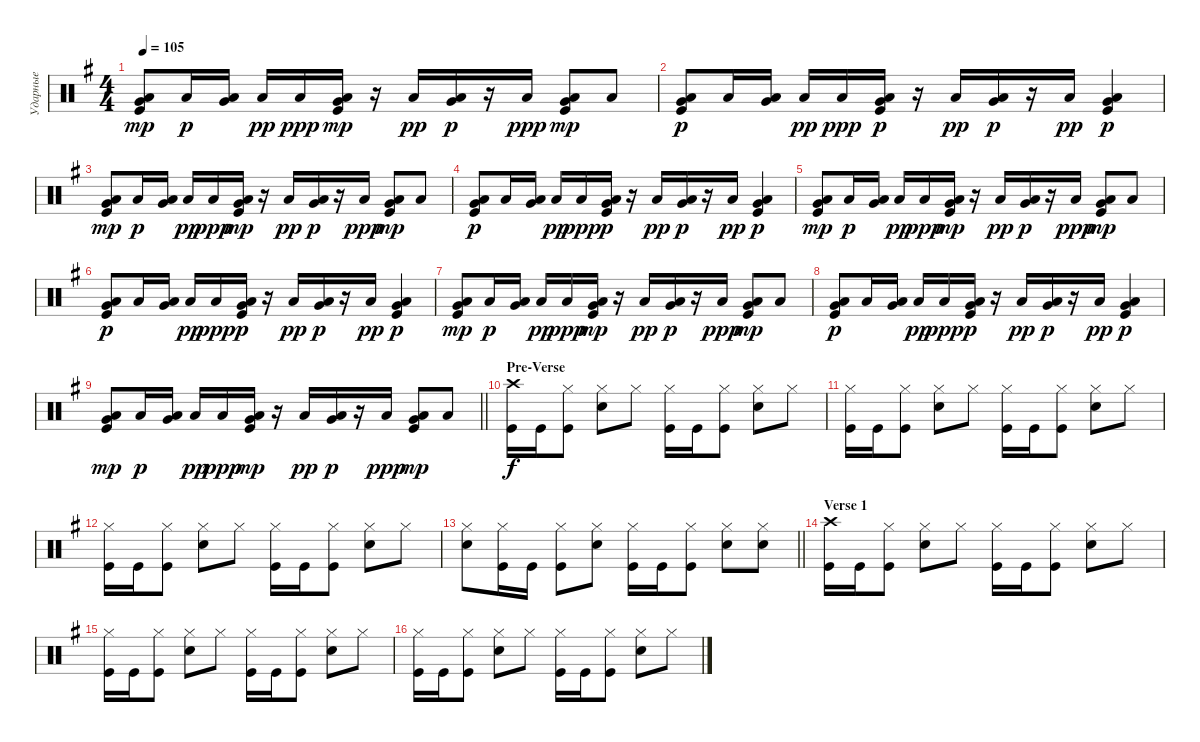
\track ("Ударные" "Ударные") {instrument percussion}
\staff {score}
\articulation defaults
\ts (4 4)
\tempo 105
\clef neutral
\ks eminor
("Low Floor Tom (hit)" "Very Low Tom (hit)" "Kick (hit)").8{bd 60 dy mp} "Low Floor Tom (hit)".16{dy p} ("Low Floor Tom (hit)" "Very Low Tom (hit)").16{bd 60} "Low Floor Tom (hit)".16{dy pp} "Low Floor Tom (hit)".16{dy ppp} ("Low Floor Tom (hit)" "Very Low Tom (hit)" "Kick (hit)").16{bd 60 dy mp} r.16 "Low Floor Tom (hit)".16{dy pp} ("Low Floor Tom (hit)" "Very Low Tom (hit)").16{bd 60 dy p} r.16 "Low Floor Tom (hit)".16{dy ppp} ("Low Floor Tom (hit)" "Very Low Tom (hit)" "Kick (hit)").8{bd 60 dy mp} "Low Floor Tom (hit)".8 |
("Low Floor Tom (hit)" "Very Low Tom (hit)" "Kick (hit)").8{bd 60 dy p} "Low Floor Tom (hit)".16 ("Low Floor Tom (hit)" "Very Low Tom (hit)").16{bd 60} "Low Floor Tom (hit)".16{dy pp} "Low Floor Tom (hit)".16{dy ppp} ("Low Floor Tom (hit)" "Very Low Tom (hit)" "Kick (hit)").16{bd 60 dy p} r.16 "Low Floor Tom (hit)".16{dy pp} ("Low Floor Tom (hit)" "Very Low Tom (hit)").16{bd 60 dy p} r.16 "Low Floor Tom (hit)".16{dy pp} ("Low Floor Tom (hit)" "Very Low Tom (hit)" "Kick (hit)").4{bd 60 dy p} |
("Low Floor Tom (hit)" "Very Low Tom (hit)" "Kick (hit)").8{bd 60 dy mp} "Low Floor Tom (hit)".16{dy p} ("Low Floor Tom (hit)" "Very Low Tom (hit)").16{bd 60} "Low Floor Tom (hit)".16{dy pp} "Low Floor Tom (hit)".16{dy ppp} ("Low Floor Tom (hit)" "Very Low Tom (hit)" "Kick (hit)").16{bd 60 dy mp} r.16 "Low Floor Tom (hit)".16{dy pp} ("Low Floor Tom (hit)" "Very Low Tom (hit)").16{bd 60 dy p} r.16 "Low Floor Tom (hit)".16{dy ppp} ("Low Floor Tom (hit)" "Very Low Tom (hit)" "Kick (hit)").8{bd 60 dy mp} "Low Floor Tom (hit)".8 |
("Low Floor Tom (hit)" "Very Low Tom (hit)" "Kick (hit)").8{bd 60 dy p} "Low Floor Tom (hit)".16 ("Low Floor Tom (hit)" "Very Low Tom (hit)").16{bd 60} "Low Floor Tom (hit)".16{dy pp} "Low Floor Tom (hit)".16{dy ppp} ("Low Floor Tom (hit)" "Very Low Tom (hit)" "Kick (hit)").16{bd 60 dy p} r.16 "Low Floor Tom (hit)".16{dy pp} ("Low Floor Tom (hit)" "Very Low Tom (hit)").16{bd 60 dy p} r.16 "Low Floor Tom (hit)".16{dy pp} ("Low Floor Tom (hit)" "Very Low Tom (hit)" "Kick (hit)").4{bd 60 dy p} |
("Low Floor Tom (hit)" "Very Low Tom (hit)" "Kick (hit)").8{bd 60 dy mp} "Low Floor Tom (hit)".16{dy p} ("Low Floor Tom (hit)" "Very Low Tom (hit)").16{bd 60} "Low Floor Tom (hit)".16{dy pp} "Low Floor Tom (hit)".16{dy ppp} ("Low Floor Tom (hit)" "Very Low Tom (hit)" "Kick (hit)").16{bd 60 dy mp} r.16 "Low Floor Tom (hit)".16{dy pp} ("Low Floor Tom (hit)" "Very Low Tom (hit)").16{bd 60 dy p} r.16 "Low Floor Tom (hit)".16{dy ppp} ("Low Floor Tom (hit)" "Very Low Tom (hit)" "Kick (hit)").8{bd 60 dy mp} "Low Floor Tom (hit)".8 |
("Low Floor Tom (hit)" "Very Low Tom (hit)" "Kick (hit)").8{bd 60 dy p} "Low Floor Tom (hit)".16 ("Low Floor Tom (hit)" "Very Low Tom (hit)").16{bd 60} "Low Floor Tom (hit)".16{dy pp} "Low Floor Tom (hit)".16{dy ppp} ("Low Floor Tom (hit)" "Very Low Tom (hit)" "Kick (hit)").16{bd 60 dy p} r.16 "Low Floor Tom (hit)".16{dy pp} ("Low Floor Tom (hit)" "Very Low Tom (hit)").16{bd 60 dy p} r.16 "Low Floor Tom (hit)".16{dy pp} ("Low Floor Tom (hit)" "Very Low Tom (hit)" "Kick (hit)").4{bd 60 dy p} |
("Low Floor Tom (hit)" "Very Low Tom (hit)" "Kick (hit)").8{bd 60 dy mp} "Low Floor Tom (hit)".16{dy p} ("Low Floor Tom (hit)" "Very Low Tom (hit)").16{bd 60} "Low Floor Tom (hit)".16{dy pp} "Low Floor Tom (hit)".16{dy ppp} ("Low Floor Tom (hit)" "Very Low Tom (hit)" "Kick (hit)").16{bd 60 dy mp} r.16 "Low Floor Tom (hit)".16{dy pp} ("Low Floor Tom (hit)" "Very Low Tom (hit)").16{bd 60 dy p} r.16 "Low Floor Tom (hit)".16{dy ppp} ("Low Floor Tom (hit)" "Very Low Tom (hit)" "Kick (hit)").8{bd 60 dy mp} "Low Floor Tom (hit)".8 |
("Low Floor Tom (hit)" "Very Low Tom (hit)" "Kick (hit)").8{bd 60 dy p} "Low Floor Tom (hit)".16 ("Low Floor Tom (hit)" "Very Low Tom (hit)").16{bd 60} "Low Floor Tom (hit)".16{dy pp} "Low Floor Tom (hit)".16{dy ppp} ("Low Floor Tom (hit)" "Very Low Tom (hit)" "Kick (hit)").16{bd 60 dy p} r.16 "Low Floor Tom (hit)".16{dy pp} ("Low Floor Tom (hit)" "Very Low Tom (hit)").16{bd 60 dy p} r.16 "Low Floor Tom (hit)".16{dy pp} ("Low Floor Tom (hit)" "Very Low Tom (hit)" "Kick (hit)").4{bd 60 dy p} |
\barLineRight lightlight
("Low Floor Tom (hit)" "Very Low Tom (hit)" "Kick (hit)").8{bd 60 dy mp} "Low Floor Tom (hit)".16{dy p} ("Low Floor Tom (hit)" "Very Low Tom (hit)").16{bd 60} "Low Floor Tom (hit)".16{dy pp} "Low Floor Tom (hit)".16{dy ppp} ("Low Floor Tom (hit)" "Very Low Tom (hit)" "Kick (hit)").16{bd 60 dy mp} r.16 "Low Floor Tom (hit)".16{dy pp} ("Low Floor Tom (hit)" "Very Low Tom (hit)").16{bd 60 dy p} r.16 "Low Floor Tom (hit)".16{dy ppp} ("Low Floor Tom (hit)" "Very Low Tom (hit)" "Kick (hit)").8{bd 60 dy mp} "Low Floor Tom (hit)".8 |
\section ("" "Pre-Verse")
("Kick (hit)" "Crash high (hit)").16{dy f} "Kick (hit)".16 ("Kick (hit)" "Hi-Hat (closed)").8 ("Snare (hit) 2" "Hi-Hat (closed)").8 "Hi-Hat (closed)".8 ("Kick (hit)" "Hi-Hat (closed)").16 "Kick (hit)".16 ("Kick (hit)" "Hi-Hat (closed)").8 ("Snare (hit) 2" "Hi-Hat (closed)").8 "Hi-Hat (closed)".8 |
("Kick (hit)" "Hi-Hat (closed)").16 "Kick (hit)".16 ("Kick (hit)" "Hi-Hat (closed)").8 ("Snare (hit) 2" "Hi-Hat (closed)").8 "Hi-Hat (closed)".8 ("Kick (hit)" "Hi-Hat (closed)").16 "Kick (hit)".16 ("Kick (hit)" "Hi-Hat (closed)").8 ("Snare (hit) 2" "Hi-Hat (closed)").8 "Hi-Hat (closed)".8 |
("Kick (hit)" "Hi-Hat (closed)").16 "Kick (hit)".16 ("Kick (hit)" "Hi-Hat (closed)").8 ("Snare (hit) 2" "Hi-Hat (closed)").8 "Hi-Hat (closed)".8 ("Kick (hit)" "Hi-Hat (closed)").16 "Kick (hit)".16 ("Kick (hit)" "Hi-Hat (closed)").8 ("Snare (hit) 2" "Hi-Hat (closed)").8 "Hi-Hat (closed)".8 |
\barLineRight lightlight
("Snare (hit) 2" "Hi-Hat (closed)").8 ("Kick (hit)" "Hi-Hat (closed)").16 "Kick (hit)".16 ("Hi-Hat (closed)" "Kick (hit)").8 ("Hi-Hat (closed)" "Snare (hit) 2").8 ("Kick (hit)" "Hi-Hat (closed)").16 "Kick (hit)".16 ("Kick (hit)" "Hi-Hat (closed)").8 ("Snare (hit) 2" "Hi-Hat (closed)").8 ("Hi-Hat (closed)" "Snare (hit) 2").8 |
\section ("" "Verse 1")
("Kick (hit)" "Crash high (hit)").16 "Kick (hit)".16 ("Kick (hit)" "Hi-Hat (closed)").8 ("Snare (hit) 2" "Hi-Hat (closed)").8 "Hi-Hat (closed)".8 ("Kick (hit)" "Hi-Hat (closed)").16 "Kick (hit)".16 ("Kick (hit)" "Hi-Hat (closed)").8 ("Snare (hit) 2" "Hi-Hat (closed)").8 "Hi-Hat (closed)".8 |
("Kick (hit)" "Hi-Hat (closed)").16 "Kick (hit)".16 ("Kick (hit)" "Hi-Hat (closed)").8 ("Snare (hit) 2" "Hi-Hat (closed)").8 "Hi-Hat (closed)".8 ("Kick (hit)" "Hi-Hat (closed)").16 "Kick (hit)".16 ("Kick (hit)" "Hi-Hat (closed)").8 ("Snare (hit) 2" "Hi-Hat (closed)").8 "Hi-Hat (closed)".8 |
("Kick (hit)" "Hi-Hat (closed)").16 "Kick (hit)".16 ("Kick (hit)" "Hi-Hat (closed)").8 ("Snare (hit) 2" "Hi-Hat (closed)").8 "Hi-Hat (closed)".8 ("Kick (hit)" "Hi-Hat (closed)").16 "Kick (hit)".16 ("Kick (hit)" "Hi-Hat (closed)").8 ("Snare (hit) 2" "Hi-Hat (closed)").8 "Hi-Hat (closed)".8
